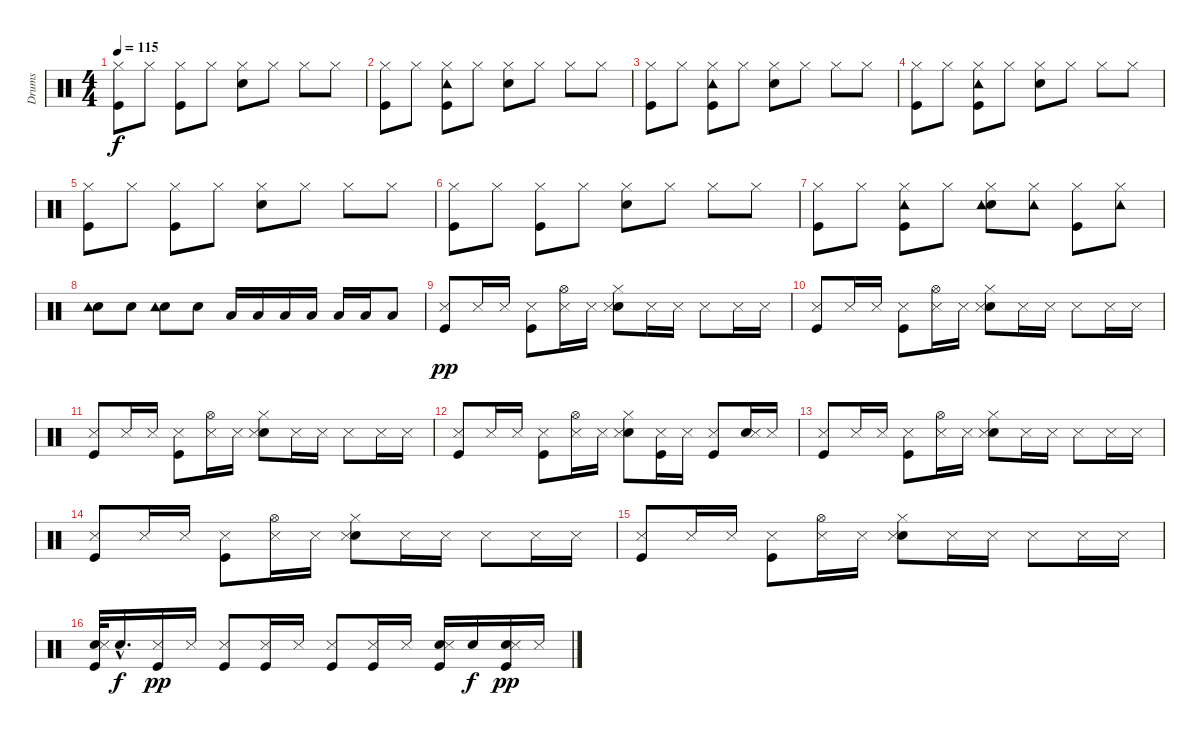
\track ("Drums" "Drums") {instrument percussion}
\staff {score}
\articulation defaults
\ts (4 4)
\tempo 115
\clef neutral
\ks c
("Hi-Hat (closed)" "Kick (hit)").8{dy f} "Hi-Hat (closed)".8 ("Hi-Hat (closed)" "Kick (hit)").8 "Hi-Hat (closed)".8 ("Hi-Hat (closed)" "Snare (hit) 2").8 "Hi-Hat (closed)".8 "Hi-Hat (closed)".8 "Hi-Hat (closed)".8 |
("Hi-Hat (closed)" "Kick (hit)").8 "Hi-Hat (closed)".8 ("Hi-Hat (closed)" "Tambourine (hit)" "Kick (hit)").8 "Hi-Hat (closed)".8 ("Hi-Hat (closed)" "Snare (hit) 2").8 "Hi-Hat (closed)".8 "Hi-Hat (closed)".8 "Hi-Hat (closed)".8 |
("Hi-Hat (closed)" "Kick (hit)").8 "Hi-Hat (closed)".8 ("Hi-Hat (closed)" "Tambourine (hit)" "Kick (hit)").8 "Hi-Hat (closed)".8 ("Hi-Hat (closed)" "Snare (hit) 2").8 "Hi-Hat (closed)".8 "Hi-Hat (closed)".8 "Hi-Hat (closed)".8 |
("Hi-Hat (closed)" "Kick (hit)").8 "Hi-Hat (closed)".8 ("Hi-Hat (closed)" "Tambourine (hit)" "Kick (hit)").8 "Hi-Hat (closed)".8 ("Hi-Hat (closed)" "Snare (hit) 2").8 "Hi-Hat (closed)".8 "Hi-Hat (closed)".8 "Hi-Hat (closed)".8 |
("Hi-Hat (closed)" "Kick (hit)").8 "Hi-Hat (closed)".8 ("Hi-Hat (closed)" "Kick (hit)").8 "Hi-Hat (closed)".8 ("Hi-Hat (closed)" "Snare (hit) 2").8 "Hi-Hat (closed)".8 "Hi-Hat (closed)".8 "Hi-Hat (closed)".8 |
("Hi-Hat (closed)" "Kick (hit)").8 "Hi-Hat (closed)".8 ("Hi-Hat (closed)" "Kick (hit)").8 "Hi-Hat (closed)".8 ("Hi-Hat (closed)" "Snare (hit) 2").8 "Hi-Hat (closed)".8 "Hi-Hat (closed)".8 "Hi-Hat (closed)".8 |
("Hi-Hat (closed)" "Kick (hit)").8 "Hi-Hat (closed)".8 ("Hi-Hat (closed)" "Tambourine (hit)" "Kick (hit)").8 "Hi-Hat (closed)".8 ("Hi-Hat (closed)" "Snare (hit) 2" "Tambourine (hit)").8 ("Hi-Hat (closed)" "Tambourine (hit)").8 ("Hi-Hat (closed)" "Kick (hit)").8 ("Hi-Hat (closed)" "Tambourine (hit)").8 |
("Snare (hit) 2" "Tambourine (hit)").8 "Snare (hit) 2".8 ("Snare (hit) 2" "Tambourine (hit)").8 "Snare (hit) 2".8 "Low Floor Tom (hit)".16 "Low Floor Tom (hit)".16 "Low Floor Tom (hit)".16 "Low Floor Tom (hit)".16 "Low Floor Tom (hit)".16 "Low Floor Tom (hit)".16 "Low Floor Tom (hit)".8 |
("Snare (side stick) 3" "Kick (hit)").8{dy pp} "Snare (side stick) 3".16 "Snare (side stick) 3".16 ("Snare (side stick) 3" "Kick (hit)").8 ("Hi-Hat (open)" "Snare (side stick) 3").16 "Snare (side stick) 3".16 ("Hi-Hat (closed)" "Snare (hit) 2" "Snare (side stick) 3").8 "Snare (side stick) 3".16 "Snare (side stick) 3".16 "Snare (side stick) 3".8 "Snare (side stick) 3".16 "Snare (side stick) 3".16 |
("Snare (side stick) 3" "Kick (hit)").8 "Snare (side stick) 3".16 "Snare (side stick) 3".16 ("Snare (side stick) 3" "Kick (hit)").8 ("Hi-Hat (open)" "Snare (side stick) 3").16 "Snare (side stick) 3".16 ("Hi-Hat (closed)" "Snare (hit) 2" "Snare (side stick) 3").8 "Snare (side stick) 3".16 "Snare (side stick) 3".16 "Snare (side stick) 3".8 "Snare (side stick) 3".16 "Snare (side stick) 3".16 |
("Snare (side stick) 3" "Kick (hit)").8 "Snare (side stick) 3".16 "Snare (side stick) 3".16 ("Snare (side stick) 3" "Kick (hit)").8 ("Hi-Hat (open)" "Snare (side stick) 3").16 "Snare (side stick) 3".16 ("Hi-Hat (closed)" "Snare (hit) 2" "Snare (side stick) 3").8 "Snare (side stick) 3".16 "Snare (side stick) 3".16 "Snare (side stick) 3".8 "Snare (side stick) 3".16 "Snare (side stick) 3".16 |
("Snare (side stick) 3" "Kick (hit)").8 "Snare (side stick) 3".16 "Snare (side stick) 3".16 ("Snare (side stick) 3" "Kick (hit)").8 ("Hi-Hat (open)" "Snare (side stick) 3").16 "Snare (side stick) 3".16 ("Hi-Hat (closed)" "Snare (hit) 2" "Snare (side stick) 3").8 ("Snare (side stick) 3" "Kick (hit)").16 "Snare (side stick) 3".16 ("Snare (side stick) 3" "Kick (hit)").8 ("Snare (hit) 2" "Snare (side stick) 3").16 "Snare (side stick) 3".16 |
("Snare (side stick) 3" "Kick (hit)").8 "Snare (side stick) 3".16 "Snare (side stick) 3".16 ("Snare (side stick) 3" "Kick (hit)").8 ("Hi-Hat (open)" "Snare (side stick) 3").16 "Snare (side stick) 3".16 ("Hi-Hat (closed)" "Snare (hit) 2" "Snare (side stick) 3").8 "Snare (side stick) 3".16 "Snare (side stick) 3".16 "Snare (side stick) 3".8 "Snare (side stick) 3".16 "Snare (side stick) 3".16 |
("Snare (side stick) 3" "Kick (hit)").8 "Snare (side stick) 3".16 "Snare (side stick) 3".16 ("Snare (side stick) 3" "Kick (hit)").8 ("Hi-Hat (open)" "Snare (side stick) 3").16 "Snare (side stick) 3".16 ("Hi-Hat (closed)" "Snare (hit) 2" "Snare (side stick) 3").8 "Snare (side stick) 3".16 "Snare (side stick) 3".16 "Snare (side stick) 3".8 "Snare (side stick) 3".16 "Snare (side stick) 3".16 |
("Snare (side stick) 3" "Kick (hit)").8 "Snare (side stick) 3".16 "Snare (side stick) 3".16 ("Snare (side stick) 3" "Kick (hit)").8 ("Hi-Hat (open)" "Snare (side stick) 3").16 "Snare (side stick) 3".16 ("Hi-Hat (closed)" "Snare (hit) 2" "Snare (side stick) 3").8 "Snare (side stick) 3".16 "Snare (side stick) 3".16 "Snare (side stick) 3".8 "Snare (side stick) 3".16 "Snare (side stick) 3".16 |
("Snare (hit) 2" "Snare (side stick) 3" "Kick (hit)").32 "Snare (hit) 2"{hac}.16{d dy f} ("Snare (side stick) 3" "Kick (hit)").16{dy pp} "Snare (side stick) 3".16 ("Snare (side stick) 3" "Kick (hit)").8 ("Snare (side stick) 3" "Kick (hit)").16 "Snare (side stick) 3".16 ("Snare (side stick) 3" "Kick (hit)").8 ("Snare (side stick) 3" "Kick (hit)").16 "Snare (side stick) 3".16 ("Snare (hit) 2" "Snare (side stick) 3" "Kick (hit)").16 "Snare (hit) 2".16{dy f} ("Snare (hit) 2" "Snare (side stick) 3" "Kick (hit)").16{dy pp} "Snare (side stick) 3".16
